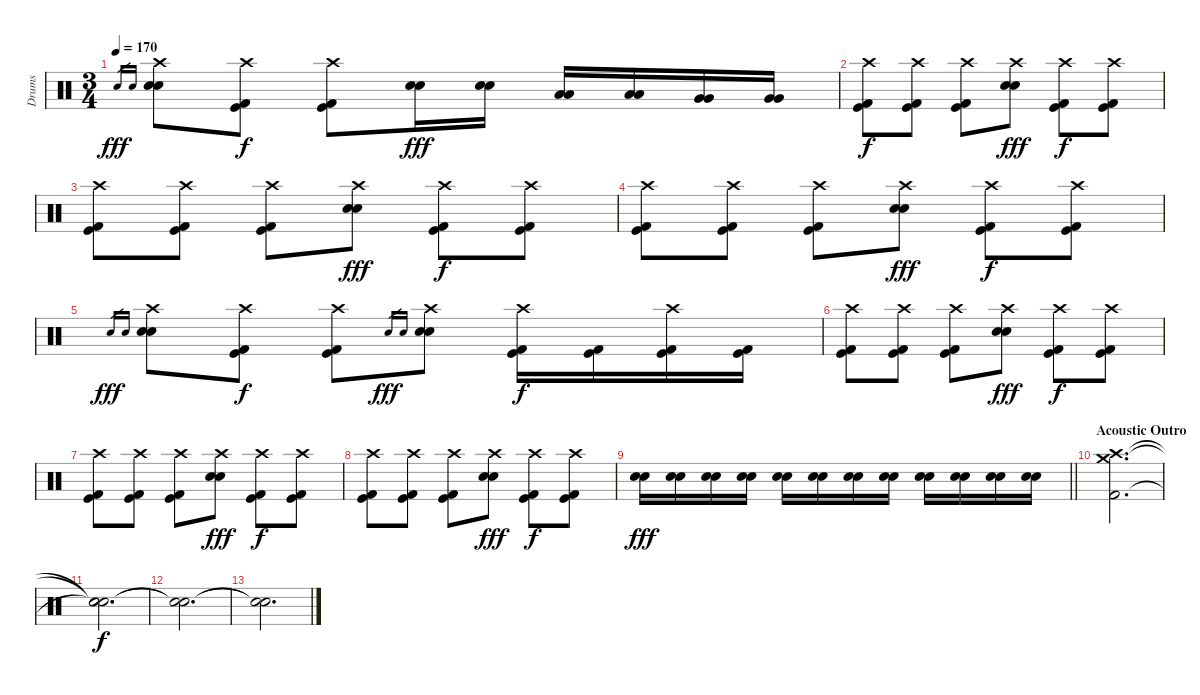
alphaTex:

\track ("Drums" "Drums") {instrument percussion}
\staff {score}
\articulation defaults
\ts (3 4)
\tempo 170
\clef neutral
\ks c "Electric Snare (hit)".16{gr dy fff} "Electric Snare (hit)".16{gr}
("Crash high (hit)" "Electric Snare (hit)" "Electric Snare (hit)").8 ("Crash high (hit)" "Kick (hit)" "Kick (hit) 2").8{dy f} ("Crash high (hit)" "Kick (hit)" "Kick (hit) 2").8 ("Electric Snare (hit)" "Electric Snare (hit)").16{dy fff} ("Electric Snare (hit)" "Electric Snare (hit)").16 ("Low Tom (hit)" "Low Tom (hit)").16 ("Low Tom (hit)" "Low Tom (hit)").16 ("Very Low Tom (hit)" "Very Low Tom (hit)").16 ("Very Low Tom (hit)" "Very Low Tom (hit)").16 |
("Crash high (hit)" "Kick (hit)" "Kick (hit) 2").8{dy f} ("Crash high (hit)" "Kick (hit)" "Kick (hit) 2").8 ("Crash high (hit)" "Kick (hit)" "Kick (hit) 2").8 ("Crash high (hit)" "Electric Snare (hit)" "Electric Snare (hit)").8{dy fff} ("Crash high (hit)" "Kick (hit)" "Kick (hit) 2").8{dy f} ("Crash high (hit)" "Kick (hit)" "Kick (hit) 2").8 |
("Crash high (hit)" "Kick (hit)" "Kick (hit) 2").8 ("Crash high (hit)" "Kick (hit)" "Kick (hit) 2").8 ("Crash high (hit)" "Kick (hit)" "Kick (hit) 2").8 ("Crash high (hit)" "Electric Snare (hit)" "Electric Snare (hit)").8{dy fff} ("Crash high (hit)" "Kick (hit)" "Kick (hit) 2").8{dy f} ("Crash high (hit)" "Kick (hit)" "Kick (hit) 2").8 |
("Crash high (hit)" "Kick (hit)" "Kick (hit) 2").8 ("Crash high (hit)" "Kick (hit)" "Kick (hit) 2").8 ("Crash high (hit)" "Kick (hit)" "Kick (hit) 2").8 ("Crash high (hit)" "Electric Snare (hit)" "Electric Snare (hit)").8{dy fff} ("Crash high (hit)" "Kick (hit)" "Kick (hit) 2").8{dy f} ("Crash high (hit)" "Kick (hit)" "Kick (hit) 2").8 |
"Electric Snare (hit)".16{gr dy fff} "Electric Snare (hit)".16{gr} ("Crash high (hit)" "Electric Snare (hit)" "Electric Snare (hit)").8 ("Crash high (hit)" "Kick (hit)" "Kick (hit) 2").8{dy f} ("Crash high (hit)" "Kick (hit)" "Kick (hit) 2").8 "Electric Snare (hit)".16{gr dy fff} "Electric Snare (hit)".16{gr} ("Crash high (hit)" "Electric Snare (hit)" "Electric Snare (hit)").8 ("Crash high (hit)" "Kick (hit)" "Kick (hit) 2").16{dy f} ("Kick (hit)" "Kick (hit) 2").16 ("Crash high (hit)" "Kick (hit)" "Kick (hit) 2").16 ("Kick (hit)" "Kick (hit) 2").16 |
("Crash high (hit)" "Kick (hit)" "Kick (hit) 2").8 ("Crash high (hit)" "Kick (hit)" "Kick (hit) 2").8 ("Crash high (hit)" "Kick (hit)" "Kick (hit) 2").8 ("Crash high (hit)" "Electric Snare (hit)" "Electric Snare (hit)").8{dy fff} ("Crash high (hit)" "Kick (hit)" "Kick (hit) 2").8{dy f} ("Crash high (hit)" "Kick (hit)" "Kick (hit) 2").8 |
("Crash high (hit)" "Kick (hit)" "Kick (hit) 2").8 ("Crash high (hit)" "Kick (hit)" "Kick (hit) 2").8 ("Crash high (hit)" "Kick (hit)" "Kick (hit) 2").8 ("Crash high (hit)" "Electric Snare (hit)" "Electric Snare (hit)").8{dy fff} ("Crash high (hit)" "Kick (hit)" "Kick (hit) 2").8{dy f} ("Crash high (hit)" "Kick (hit)" "Kick (hit) 2").8 |
("Crash high (hit)" "Kick (hit)" "Kick (hit) 2").8 ("Crash high (hit)" "Kick (hit)" "Kick (hit) 2").8 ("Crash high (hit)" "Kick (hit)" "Kick (hit) 2").8 ("Crash high (hit)" "Electric Snare (hit)" "Electric Snare (hit)").8{dy fff} ("Crash high (hit)" "Kick (hit)" "Kick (hit) 2").8{dy f} ("Crash high (hit)" "Kick (hit)" "Kick (hit) 2").8 |
\barLineRight lightlight
("Electric Snare (hit)" "Electric Snare (hit)").16{dy fff} ("Electric Snare (hit)" "Electric Snare (hit)").16 ("Electric Snare (hit)" "Electric Snare (hit)").16 ("Electric Snare (hit)" "Electric Snare (hit)").16 ("Electric Snare (hit)" "Electric Snare (hit)").16 ("Electric Snare (hit)" "Electric Snare (hit)").16 ("Electric Snare (hit)" "Electric Snare (hit)").16 ("Electric Snare (hit)" "Electric Snare (hit)").16 ("Electric Snare (hit)" "Electric Snare (hit)").16 ("Electric Snare (hit)" "Electric Snare (hit)").16 ("Electric Snare (hit)" "Electric Snare (hit)").16 ("Electric Snare (hit)" "Electric Snare (hit)").16 |
\section ("" "Acoustic Outro")
("Crash high (hit)" "Crash medium (hit)" "Kick (hit) 2").2{d} |
("Snare (hit)"{t} "Snare (hit)"{t} "Snare (hit)"{t}).2{d dy f} |
("Snare (hit)"{t} "Snare (hit)"{t}).2{d} |
("Snare (hit)"{t} "Snare (hit)"{t}).2{d}
